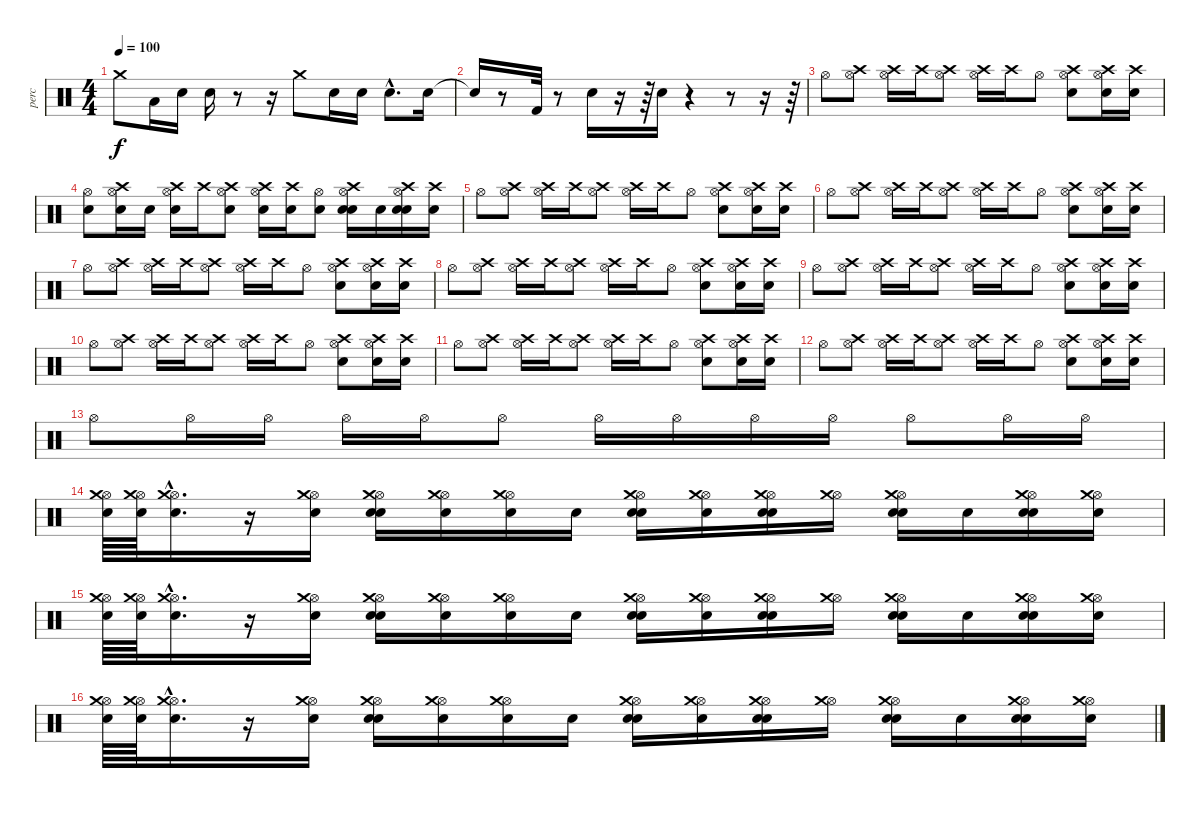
\track ("perc" "perc") {instrument percussion}
\staff {score}
\articulation defaults
\ts (4 4)
\tempo 100
\clef neutral
\ks c "Crash medium (hit)".8{dy f} "Low Floor Tom (hit)".16 "Electric Snare (hit)".16 "Snare (hit) 2".16
r.8 r.16 "Crash medium (hit)".8 "Electric Snare (hit)".16 "Electric Snare (hit)".16 "Snare (hit) 2"{hac}.8{d} "Electric Snare (hit)".16 |
"Snare (hit)"{t}.16 r.8 "Kick (hit) 2".32 r.8 "Snare (hit) 2".16 r.16 r.64 "Snare (hit) 2".16 r.4 r.8 r.16 r.64 |
"Hi-Hat (open)".8 ("Hi-Hat (open)" "Crash high (hit)").8 ("Hi-Hat (open)" "Crash high (hit)").16 "Crash high (hit)".16 ("Hi-Hat (open)" "Crash high (hit)").8 ("Hi-Hat (open)" "Crash high (hit)").16 "Crash high (hit)".16 "Hi-Hat (open)".8 ("Hi-Hat (open)" "Crash high (hit)" "Snare (hit) 2").8 ("Hi-Hat (open)" "Crash high (hit)" "Electric Snare (hit)").16 ("Crash high (hit)" "Electric Snare (hit)").16 |
("Snare (hit) 2" "Hi-Hat (open)").8 ("Electric Snare (hit)" "Hi-Hat (open)" "Crash high (hit)").16 "Electric Snare (hit)".16 ("Snare (hit) 2" "Hi-Hat (open)" "Crash high (hit)").16 "Crash high (hit)".16 ("Snare (hit) 2" "Hi-Hat (open)" "Crash high (hit)").8 ("Electric Snare (hit)" "Hi-Hat (open)" "Crash high (hit)").16 ("Electric Snare (hit)" "Crash high (hit)").16 ("Snare (hit) 2" "Hi-Hat (open)").8 ("Electric Snare (hit)" "Hi-Hat (open)" "Crash high (hit)" "Snare (hit) 2").16 "Electric Snare (hit)".16 ("Snare (hit) 2" "Hi-Hat (open)" "Crash high (hit)" "Electric Snare (hit)").16 ("Crash high (hit)" "Electric Snare (hit)").16 |
"Hi-Hat (open)".8 ("Hi-Hat (open)" "Crash high (hit)").8 ("Hi-Hat (open)" "Crash high (hit)").16 "Crash high (hit)".16 ("Hi-Hat (open)" "Crash high (hit)").8 ("Hi-Hat (open)" "Crash high (hit)").16 "Crash high (hit)".16 "Hi-Hat (open)".8 ("Hi-Hat (open)" "Crash high (hit)" "Snare (hit) 2").8 ("Hi-Hat (open)" "Crash high (hit)" "Electric Snare (hit)").16 ("Crash high (hit)" "Electric Snare (hit)").16 |
"Hi-Hat (open)".8 ("Hi-Hat (open)" "Crash high (hit)").8 ("Hi-Hat (open)" "Crash high (hit)").16 "Crash high (hit)".16 ("Hi-Hat (open)" "Crash high (hit)").8 ("Hi-Hat (open)" "Crash high (hit)").16 "Crash high (hit)".16 "Hi-Hat (open)".8 ("Hi-Hat (open)" "Crash high (hit)" "Snare (hit) 2").8 ("Hi-Hat (open)" "Crash high (hit)" "Electric Snare (hit)").16 ("Crash high (hit)" "Electric Snare (hit)").16 |
"Hi-Hat (open)".8 ("Hi-Hat (open)" "Crash high (hit)").8 ("Hi-Hat (open)" "Crash high (hit)").16 "Crash high (hit)".16 ("Hi-Hat (open)" "Crash high (hit)").8 ("Hi-Hat (open)" "Crash high (hit)").16 "Crash high (hit)".16 "Hi-Hat (open)".8 ("Hi-Hat (open)" "Crash high (hit)" "Snare (hit) 2").8 ("Hi-Hat (open)" "Crash high (hit)" "Electric Snare (hit)").16 ("Crash high (hit)" "Electric Snare (hit)").16 |
"Hi-Hat (open)".8 ("Hi-Hat (open)" "Crash high (hit)").8 ("Hi-Hat (open)" "Crash high (hit)").16 "Crash high (hit)".16 ("Hi-Hat (open)" "Crash high (hit)").8 ("Hi-Hat (open)" "Crash high (hit)").16 "Crash high (hit)".16 "Hi-Hat (open)".8 ("Hi-Hat (open)" "Crash high (hit)" "Snare (hit) 2").8 ("Hi-Hat (open)" "Crash high (hit)" "Electric Snare (hit)").16 ("Crash high (hit)" "Electric Snare (hit)").16 |
"Hi-Hat (open)".8 ("Hi-Hat (open)" "Crash high (hit)").8 ("Hi-Hat (open)" "Crash high (hit)").16 "Crash high (hit)".16 ("Hi-Hat (open)" "Crash high (hit)").8 ("Hi-Hat (open)" "Crash high (hit)").16 "Crash high (hit)".16 "Hi-Hat (open)".8 ("Hi-Hat (open)" "Crash high (hit)" "Snare (hit) 2").8 ("Hi-Hat (open)" "Crash high (hit)" "Electric Snare (hit)").16 ("Crash high (hit)" "Electric Snare (hit)").16 |
"Hi-Hat (open)".8 ("Hi-Hat (open)" "Crash high (hit)").8 ("Hi-Hat (open)" "Crash high (hit)").16 "Crash high (hit)".16 ("Hi-Hat (open)" "Crash high (hit)").8 ("Hi-Hat (open)" "Crash high (hit)").16 "Crash high (hit)".16 "Hi-Hat (open)".8 ("Hi-Hat (open)" "Crash high (hit)" "Snare (hit) 2").8 ("Hi-Hat (open)" "Crash high (hit)" "Electric Snare (hit)").16 ("Crash high (hit)" "Electric Snare (hit)").16 |
"Hi-Hat (open)".8 ("Hi-Hat (open)" "Crash high (hit)").8 ("Hi-Hat (open)" "Crash high (hit)").16 "Crash high (hit)".16 ("Hi-Hat (open)" "Crash high (hit)").8 ("Hi-Hat (open)" "Crash high (hit)").16 "Crash high (hit)".16 "Hi-Hat (open)".8 ("Hi-Hat (open)" "Crash high (hit)" "Snare (hit) 2").8 ("Hi-Hat (open)" "Crash high (hit)" "Electric Snare (hit)").16 ("Crash high (hit)" "Electric Snare (hit)").16 |
"Hi-Hat (open)".8 ("Hi-Hat (open)" "Crash high (hit)").8 ("Hi-Hat (open)" "Crash high (hit)").16 "Crash high (hit)".16 ("Hi-Hat (open)" "Crash high (hit)").8 ("Hi-Hat (open)" "Crash high (hit)").16 "Crash high (hit)".16 "Hi-Hat (open)".8 ("Hi-Hat (open)" "Crash high (hit)" "Snare (hit) 2").8 ("Hi-Hat (open)" "Crash high (hit)" "Electric Snare (hit)").16 ("Crash high (hit)" "Electric Snare (hit)").16 |
"Hi-Hat (open)".8 "Hi-Hat (open)".16 "Hi-Hat (open)".16 "Hi-Hat (open)".16 "Hi-Hat (open)".16 "Hi-Hat (open)".8 "Hi-Hat (open)".16 "Hi-Hat (open)".16 "Hi-Hat (open)".16 "Hi-Hat (open)".16 "Hi-Hat (open)".8 "Hi-Hat (open)".16 "Hi-Hat (open)".16 |
("Hi-Hat (open)" "Crash medium (hit)" "Electric Snare (hit)").64 ("Hi-Hat (open)" "Crash medium (hit)" "Electric Snare (hit)").64 ("Hi-Hat (open)"{hac} "Crash medium (hit)"{hac} "Electric Snare (hit)"{hac}).16{d} r.16 ("Hi-Hat (open)" "Crash medium (hit)" "Electric Snare (hit)").16 ("Hi-Hat (open)" "Crash medium (hit)" "Electric Snare (hit)" "Snare (hit) 2").16 ("Hi-Hat (open)" "Crash medium (hit)" "Electric Snare (hit)").16 ("Hi-Hat (open)" "Crash medium (hit)" "Snare (hit) 2").16 "Electric Snare (hit)".16 ("Hi-Hat (open)" "Crash medium (hit)" "Electric Snare (hit)" "Snare (hit) 2").16 ("Hi-Hat (open)" "Crash medium (hit)" "Electric Snare (hit)").16 ("Hi-Hat (open)" "Crash medium (hit)" "Electric Snare (hit)" "Snare (hit) 2").16 ("Hi-Hat (open)" "Crash medium (hit)").16 ("Hi-Hat (open)" "Crash medium (hit)" "Electric Snare (hit)" "Snare (hit) 2").16 "Electric Snare (hit)".16 ("Hi-Hat (open)" "Crash medium (hit)" "Electric Snare (hit)" "Snare (hit) 2").16 ("Hi-Hat (open)" "Crash medium (hit)" "Electric Snare (hit)").16 |
("Hi-Hat (open)" "Crash medium (hit)" "Electric Snare (hit)").64 ("Hi-Hat (open)" "Crash medium (hit)" "Electric Snare (hit)").64 ("Hi-Hat (open)"{hac} "Crash medium (hit)"{hac} "Electric Snare (hit)"{hac}).16{d} r.16 ("Hi-Hat (open)" "Crash medium (hit)" "Electric Snare (hit)").16 ("Hi-Hat (open)" "Crash medium (hit)" "Electric Snare (hit)" "Snare (hit) 2").16 ("Hi-Hat (open)" "Crash medium (hit)" "Electric Snare (hit)").16 ("Hi-Hat (open)" "Crash medium (hit)" "Snare (hit) 2").16 "Electric Snare (hit)".16 ("Hi-Hat (open)" "Crash medium (hit)" "Electric Snare (hit)" "Snare (hit) 2").16 ("Hi-Hat (open)" "Crash medium (hit)" "Electric Snare (hit)").16 ("Hi-Hat (open)" "Crash medium (hit)" "Electric Snare (hit)" "Snare (hit) 2").16 ("Hi-Hat (open)" "Crash medium (hit)").16 ("Hi-Hat (open)" "Crash medium (hit)" "Electric Snare (hit)" "Snare (hit) 2").16 "Electric Snare (hit)".16 ("Hi-Hat (open)" "Crash medium (hit)" "Electric Snare (hit)" "Snare (hit) 2").16 ("Hi-Hat (open)" "Crash medium (hit)" "Electric Snare (hit)").16 |
("Hi-Hat (open)" "Crash medium (hit)" "Electric Snare (hit)").64 ("Hi-Hat (open)" "Crash medium (hit)" "Electric Snare (hit)").64 ("Hi-Hat (open)"{hac} "Crash medium (hit)"{hac} "Electric Snare (hit)"{hac}).16{d} r.16 ("Hi-Hat (open)" "Crash medium (hit)" "Electric Snare (hit)").16 ("Hi-Hat (open)" "Crash medium (hit)" "Electric Snare (hit)" "Snare (hit) 2").16 ("Hi-Hat (open)" "Crash medium (hit)" "Electric Snare (hit)").16 ("Hi-Hat (open)" "Crash medium (hit)" "Snare (hit) 2").16 "Electric Snare (hit)".16 ("Hi-Hat (open)" "Crash medium (hit)" "Electric Snare (hit)" "Snare (hit) 2").16 ("Hi-Hat (open)" "Crash medium (hit)" "Electric Snare (hit)").16 ("Hi-Hat (open)" "Crash medium (hit)" "Electric Snare (hit)" "Snare (hit) 2").16 ("Hi-Hat (open)" "Crash medium (hit)").16 ("Hi-Hat (open)" "Crash medium (hit)" "Electric Snare (hit)" "Snare (hit) 2").16 "Electric Snare (hit)".16 ("Hi-Hat (open)" "Crash medium (hit)" "Electric Snare (hit)" "Snare (hit) 2").16 ("Hi-Hat (open)" "Crash medium (hit)" "Electric Snare (hit)").16
